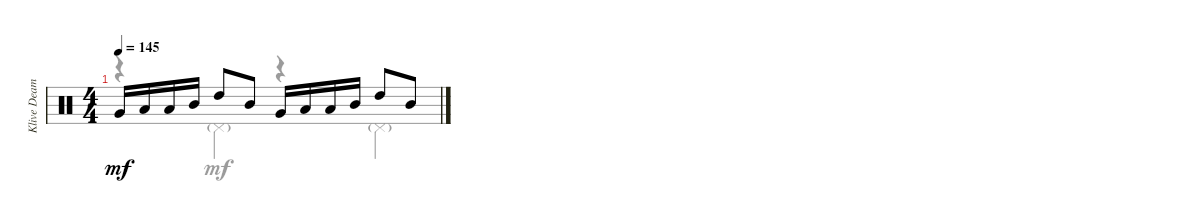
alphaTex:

\track ("Klive Deamer" "Klive Deam") {instrument percussion}
\staff {score}
\articulation defaults
\voice
\ts (4 4)
\tempo 145
\clef neutral
\ks c "Very Low Tom (hit)".16{dy mf} "Low Tom (hit)".16 "Low Tom (hit)".16 "Mid Tom (hit)".16 "High Tom (hit)".8 "Mid Tom (hit)".8 "Very Low Tom (hit)".16 "Low Tom (hit)".16 "Low Tom (hit)".16 "Mid Tom (hit)".16 "High Tom (hit)".8 "Mid Tom (hit)".8
|
|
\voice
\clef neutral
\ks c
r.4{dy mf} "Pedal Hi-Hat (hit)"{g}.4 r.4 "Pedal Hi-Hat (hit)"{g}.4 |
|
